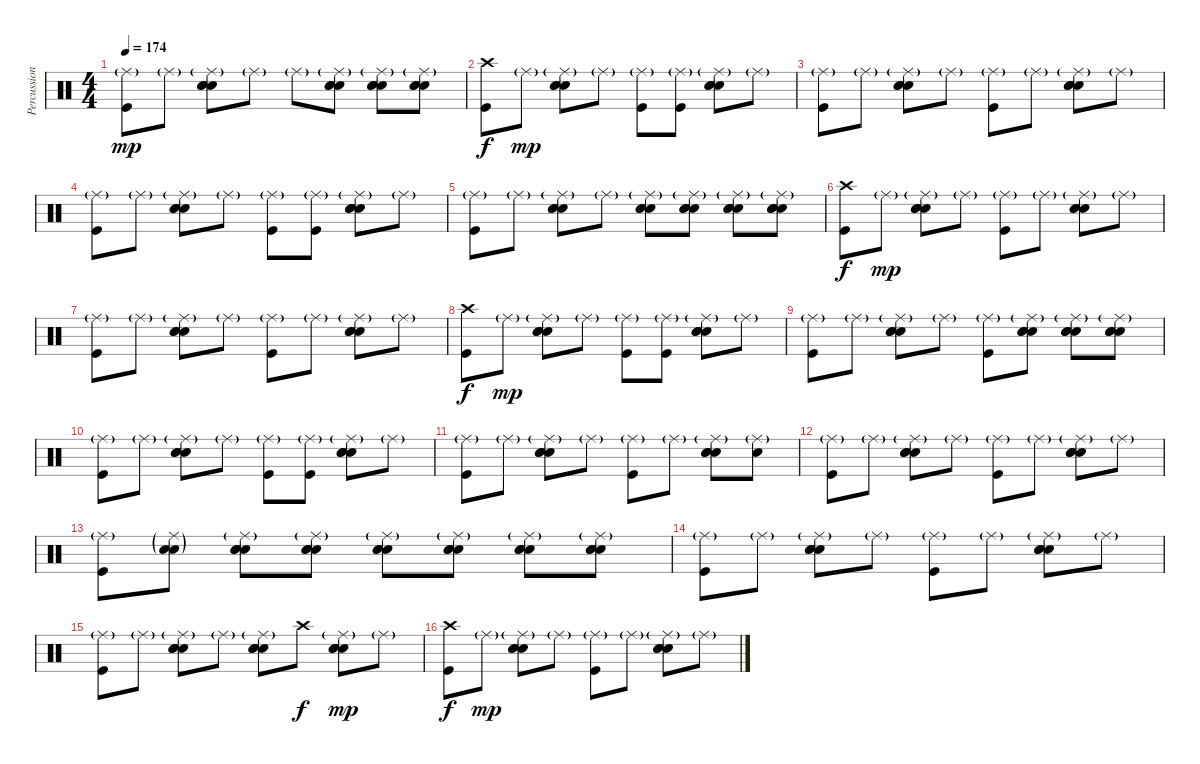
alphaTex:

\track ("Percussion" "Percussion") {instrument percussion}
\staff {score}
\articulation defaults
\ts (4 4)
\tempo 174
\clef neutral
\ks c
("Ride (middle)"{g} "Kick (hit)").8{dy mp} "Ride (middle)"{g}.8 ("Ride (middle)"{g} "Snare (hit) 2" "Electric Snare (hit)" "Electric Snare (hit)").8 "Ride (middle)"{g}.8 "Ride (middle)"{g}.8 ("Ride (middle)"{g} "Snare (hit) 2" "Electric Snare (hit)" "Electric Snare (hit)").8 ("Ride (middle)"{g} "Snare (hit) 2" "Electric Snare (hit)" "Electric Snare (hit)").8 ("Ride (middle)"{g} "Snare (hit) 2" "Electric Snare (hit)" "Electric Snare (hit)").8 |
("Crash high (hit)" "Kick (hit)").8{dy f} "Ride (middle)"{g}.8{dy mp} ("Ride (middle)"{g} "Snare (hit) 2" "Electric Snare (hit)" "Electric Snare (hit)").8 "Ride (middle)"{g}.8 ("Ride (middle)"{g} "Kick (hit)").8 ("Ride (middle)"{g} "Kick (hit)").8 ("Ride (middle)"{g} "Snare (hit) 2" "Electric Snare (hit)" "Electric Snare (hit)").8 "Ride (middle)"{g}.8 |
("Ride (middle)"{g} "Kick (hit)").8 "Ride (middle)"{g}.8 ("Ride (middle)"{g} "Snare (hit) 2" "Electric Snare (hit)" "Electric Snare (hit)").8 "Ride (middle)"{g}.8 ("Ride (middle)"{g} "Kick (hit)").8 "Ride (middle)"{g}.8 ("Ride (middle)"{g} "Snare (hit) 2" "Electric Snare (hit)" "Electric Snare (hit)").8 "Ride (middle)"{g}.8 |
("Ride (middle)"{g} "Kick (hit)").8 "Ride (middle)"{g}.8 ("Ride (middle)"{g} "Snare (hit) 2" "Electric Snare (hit)" "Electric Snare (hit)").8 "Ride (middle)"{g}.8 ("Ride (middle)"{g} "Kick (hit)").8 ("Ride (middle)"{g} "Kick (hit)").8 ("Ride (middle)"{g} "Snare (hit) 2" "Electric Snare (hit)" "Electric Snare (hit)").8 "Ride (middle)"{g}.8 |
("Ride (middle)"{g} "Kick (hit)").8 "Ride (middle)"{g}.8 ("Ride (middle)"{g} "Snare (hit) 2" "Electric Snare (hit)" "Electric Snare (hit)").8 "Ride (middle)"{g}.8 ("Ride (middle)"{g} "Snare (hit) 2" "Electric Snare (hit)" "Electric Snare (hit)").8 ("Ride (middle)"{g} "Snare (hit) 2" "Electric Snare (hit)" "Electric Snare (hit)").8 ("Ride (middle)"{g} "Snare (hit) 2" "Electric Snare (hit)" "Electric Snare (hit)").8 ("Ride (middle)"{g} "Snare (hit) 2" "Electric Snare (hit)" "Electric Snare (hit)").8 |
("Crash high (hit)" "Kick (hit)").8{dy f} "Ride (middle)"{g}.8{dy mp} ("Ride (middle)"{g} "Snare (hit) 2" "Electric Snare (hit)" "Electric Snare (hit)").8 "Ride (middle)"{g}.8 ("Ride (middle)"{g} "Kick (hit)").8 "Ride (middle)"{g}.8 ("Ride (middle)"{g} "Snare (hit) 2" "Electric Snare (hit)" "Electric Snare (hit)").8 "Ride (middle)"{g}.8 |
("Ride (middle)"{g} "Kick (hit)").8 "Ride (middle)"{g}.8 ("Ride (middle)"{g} "Snare (hit) 2" "Electric Snare (hit)" "Electric Snare (hit)").8 "Ride (middle)"{g}.8 ("Ride (middle)"{g} "Kick (hit)").8 "Ride (middle)"{g}.8 ("Ride (middle)"{g} "Snare (hit) 2" "Electric Snare (hit)" "Electric Snare (hit)").8 "Ride (middle)"{g}.8 |
("Crash high (hit)" "Kick (hit)").8{dy f} "Ride (middle)"{g}.8{dy mp} ("Ride (middle)"{g} "Snare (hit) 2" "Electric Snare (hit)" "Electric Snare (hit)").8 "Ride (middle)"{g}.8 ("Ride (middle)"{g} "Kick (hit)").8 ("Ride (middle)"{g} "Kick (hit)").8 ("Ride (middle)"{g} "Snare (hit) 2" "Electric Snare (hit)" "Electric Snare (hit)").8 "Ride (middle)"{g}.8 |
("Ride (middle)"{g} "Kick (hit)").8 "Ride (middle)"{g}.8 ("Ride (middle)"{g} "Snare (hit) 2" "Electric Snare (hit)" "Electric Snare (hit)").8 "Ride (middle)"{g}.8 ("Ride (middle)"{g} "Kick (hit)").8 ("Ride (middle)"{g} "Snare (hit) 2" "Electric Snare (hit)" "Electric Snare (hit)").8 ("Ride (middle)"{g} "Snare (hit) 2" "Electric Snare (hit)" "Electric Snare (hit)").8 ("Ride (middle)"{g} "Snare (hit) 2" "Electric Snare (hit)" "Electric Snare (hit)").8 |
("Ride (middle)"{g} "Kick (hit)").8 "Ride (middle)"{g}.8 ("Ride (middle)"{g} "Snare (hit) 2" "Electric Snare (hit)" "Electric Snare (hit)").8 "Ride (middle)"{g}.8 ("Ride (middle)"{g} "Kick (hit)").8 ("Ride (middle)"{g} "Kick (hit)").8 ("Ride (middle)"{g} "Snare (hit) 2" "Electric Snare (hit)" "Electric Snare (hit)").8 "Ride (middle)"{g}.8 |
("Ride (middle)"{g} "Kick (hit)").8 "Ride (middle)"{g}.8 ("Ride (middle)"{g} "Snare (hit) 2" "Electric Snare (hit)" "Electric Snare (hit)").8 "Ride (middle)"{g}.8 ("Ride (middle)"{g} "Kick (hit)").8 "Ride (middle)"{g}.8 ("Ride (middle)"{g} "Snare (hit) 2" "Electric Snare (hit)" "Electric Snare (hit)").8 ("Ride (middle)"{g} "Electric Snare (hit)").8 |
("Ride (middle)"{g} "Kick (hit)").8 "Ride (middle)"{g}.8 ("Ride (middle)"{g} "Snare (hit) 2" "Electric Snare (hit)" "Electric Snare (hit)").8 "Ride (middle)"{g}.8 ("Ride (middle)"{g} "Kick (hit)").8 "Ride (middle)"{g}.8 ("Ride (middle)"{g} "Snare (hit) 2" "Electric Snare (hit)" "Electric Snare (hit)").8 "Ride (middle)"{g}.8 |
("Ride (middle)"{g} "Kick (hit)").8 ("Ride (middle)"{g} "Snare (hit) 2"{g} "Electric Snare (hit)"{g}).8 ("Ride (middle)"{g} "Snare (hit) 2" "Electric Snare (hit)" "Electric Snare (hit)").8 ("Ride (middle)"{g} "Snare (hit) 2" "Electric Snare (hit)" "Electric Snare (hit)").8 ("Ride (middle)"{g} "Snare (hit) 2" "Electric Snare (hit)" "Electric Snare (hit)").8 ("Ride (middle)"{g} "Snare (hit) 2" "Electric Snare (hit)" "Electric Snare (hit)").8 ("Ride (middle)"{g} "Snare (hit) 2" "Electric Snare (hit)" "Electric Snare (hit)").8 ("Ride (middle)"{g} "Snare (hit) 2" "Electric Snare (hit)" "Electric Snare (hit)").8 |
("Ride (middle)"{g} "Kick (hit)").8 "Ride (middle)"{g}.8 ("Ride (middle)"{g} "Snare (hit) 2" "Electric Snare (hit)" "Electric Snare (hit)").8 "Ride (middle)"{g}.8 ("Ride (middle)"{g} "Kick (hit)").8 "Ride (middle)"{g}.8 ("Ride (middle)"{g} "Snare (hit) 2" "Electric Snare (hit)" "Electric Snare (hit)").8 "Ride (middle)"{g}.8 |
("Ride (middle)"{g} "Kick (hit)").8 "Ride (middle)"{g}.8 ("Ride (middle)"{g} "Snare (hit) 2" "Electric Snare (hit)" "Electric Snare (hit)").8 "Ride (middle)"{g}.8 ("Ride (middle)"{g} "Snare (hit) 2" "Electric Snare (hit)" "Electric Snare (hit)").8 "Crash high (hit)".8{dy f} ("Ride (middle)"{g} "Snare (hit) 2" "Electric Snare (hit)" "Electric Snare (hit)").8{dy mp} "Ride (middle)"{g}.8 |
("Crash high (hit)" "Kick (hit)").8{dy f} "Ride (middle)"{g}.8{dy mp} ("Ride (middle)"{g} "Snare (hit) 2" "Electric Snare (hit)" "Electric Snare (hit)").8 "Ride (middle)"{g}.8 ("Ride (middle)"{g} "Kick (hit)").8 "Ride (middle)"{g}.8 ("Ride (middle)"{g} "Snare (hit) 2" "Electric Snare (hit)" "Electric Snare (hit)").8 "Ride (middle)"{g}.8
